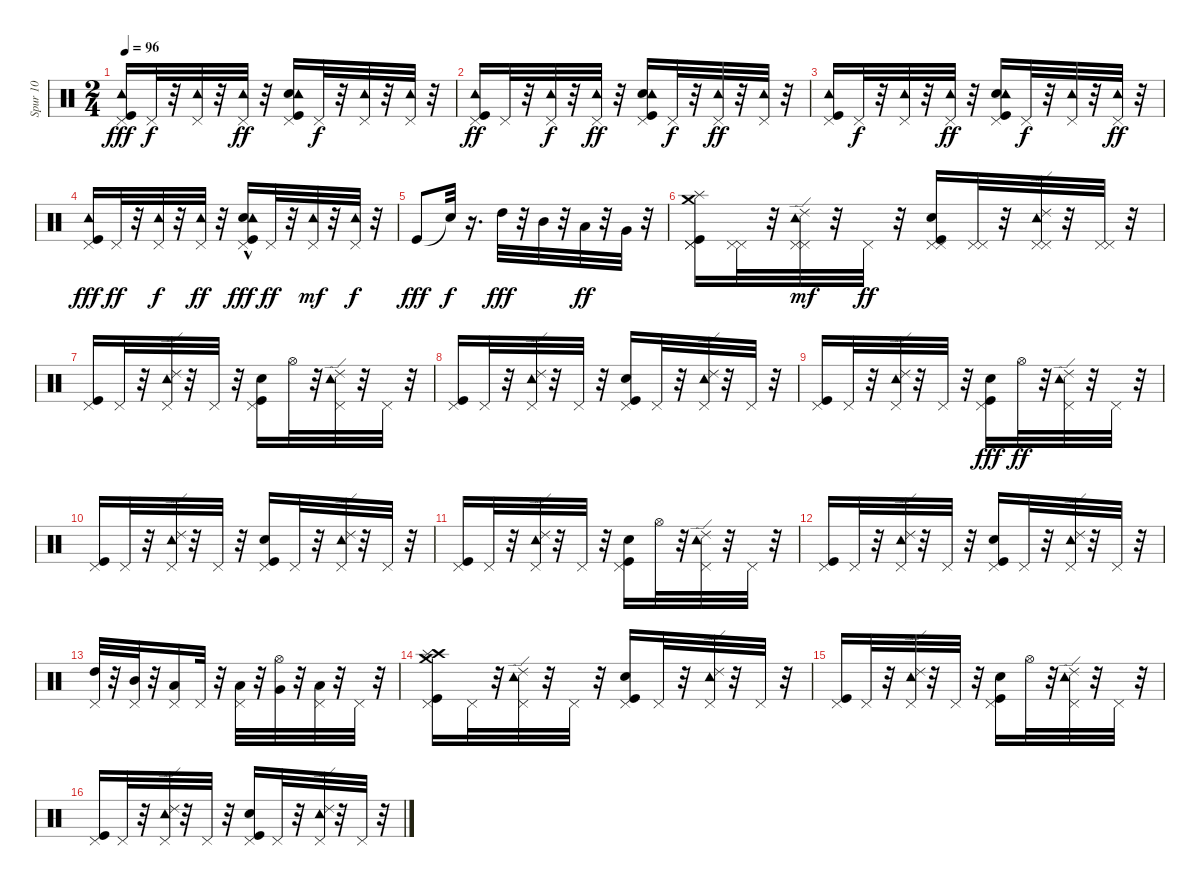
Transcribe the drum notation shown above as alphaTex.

\track ("Spur 10" "Spur 10") {instrument percussion}
\staff {score}
\articulation defaults
\ts (2 4)
\tempo 96
\clef neutral
\ks c
("Kick (hit)" "Tambourine (hit)" "Pedal Hi-Hat (hit)").16{dy fff} "Pedal Hi-Hat (hit)".32{dy f} r.32 ("Tambourine (hit)" "Pedal Hi-Hat (hit)").32 r.32 ("Tambourine (hit)" "Pedal Hi-Hat (hit)").32{dy ff} r.32 ("Kick (hit)" "Snare (hit) 2" "Tambourine (hit)" "Pedal Hi-Hat (hit)").16 "Pedal Hi-Hat (hit)".32{dy f} r.32 ("Tambourine (hit)" "Pedal Hi-Hat (hit)").32 r.32 ("Tambourine (hit)" "Pedal Hi-Hat (hit)").32 r.32 |
("Kick (hit)" "Tambourine (hit)" "Pedal Hi-Hat (hit)").16{dy ff} "Pedal Hi-Hat (hit)".32 r.32 ("Tambourine (hit)" "Pedal Hi-Hat (hit)").32{dy f} r.32 ("Tambourine (hit)" "Pedal Hi-Hat (hit)").32{dy ff} r.32 ("Kick (hit)" "Snare (hit) 2" "Tambourine (hit)" "Pedal Hi-Hat (hit)").16 "Pedal Hi-Hat (hit)".32{dy f} r.32 ("Tambourine (hit)" "Pedal Hi-Hat (hit)").32{dy ff} r.32 ("Tambourine (hit)" "Pedal Hi-Hat (hit)").32 r.32 |
("Kick (hit)" "Tambourine (hit)" "Pedal Hi-Hat (hit)").16 "Pedal Hi-Hat (hit)".32{dy f} r.32 ("Tambourine (hit)" "Pedal Hi-Hat (hit)").32 r.32 ("Tambourine (hit)" "Pedal Hi-Hat (hit)").32{dy ff} r.32 ("Kick (hit)" "Snare (hit) 2" "Tambourine (hit)" "Pedal Hi-Hat (hit)").16 "Pedal Hi-Hat (hit)".32{dy f} r.32 ("Tambourine (hit)" "Pedal Hi-Hat (hit)").32 r.32 ("Tambourine (hit)" "Pedal Hi-Hat (hit)").32{dy ff} r.32 |
("Kick (hit)" "Tambourine (hit)" "Pedal Hi-Hat (hit)").16{dy fff} "Pedal Hi-Hat (hit)".32{dy ff} r.32 ("Tambourine (hit)" "Pedal Hi-Hat (hit)").32{dy f} r.32 ("Tambourine (hit)" "Pedal Hi-Hat (hit)").32{dy ff} r.32 ("Snare (hit) 2"{hac} "Kick (hit)" "Tambourine (hit)" "Pedal Hi-Hat (hit)").16{dy fff} "Pedal Hi-Hat (hit)".32{dy ff} r.32 ("Tambourine (hit)" "Pedal Hi-Hat (hit)").32{dy mf} r.32 ("Tambourine (hit)" "Pedal Hi-Hat (hit)").32{dy f} r.32 |
"Kick (hit)".8{dy fff} "Snare (hit)"{t}.32{dy f} r.16{d} "High Tom (hit)".32{dy fff} r.32 "Mid Tom (hit)".32 r.32 "Low Tom (hit)".32{dy ff} r.32 "Very Low Tom (hit)".32 r.32 |
("Kick (hit)" "Pedal Hi-Hat (hit)" "Pedal Hi-Hat (hit)" "Splash (hit)" "Crash medium (hit)").16 ("Pedal Hi-Hat (hit)" "Pedal Hi-Hat (hit)").32 r.32 ("Tambourine (hit)" "Pedal Hi-Hat (hit)" "Pedal Hi-Hat (hit)" "Ride (edge) 2").32{dy mf} r.32 "Pedal Hi-Hat (hit)".32{dy ff} r.32 ("Snare (hit) 2" "Kick (hit)" "Pedal Hi-Hat (hit)" "Pedal Hi-Hat (hit)").16 ("Pedal Hi-Hat (hit)" "Pedal Hi-Hat (hit)").32 r.32 ("Tambourine (hit)" "Pedal Hi-Hat (hit)" "Pedal Hi-Hat (hit)" "Ride (edge) 2").32 r.32 ("Pedal Hi-Hat (hit)" "Pedal Hi-Hat (hit)").32 r.32 |
("Kick (hit)" "Pedal Hi-Hat (hit)").16 "Pedal Hi-Hat (hit)".32 r.32 ("Tambourine (hit)" "Pedal Hi-Hat (hit)" "Ride (edge) 2").32 r.32 "Pedal Hi-Hat (hit)".32 r.32 ("Snare (hit) 2" "Kick (hit)" "Pedal Hi-Hat (hit)").16 "Hi-Hat (open)".32 r.32 ("Tambourine (hit)" "Pedal Hi-Hat (hit)" "Ride (edge) 2").32 r.32 "Pedal Hi-Hat (hit)".32 r.32 |
("Kick (hit)" "Pedal Hi-Hat (hit)").16 "Pedal Hi-Hat (hit)".32 r.32 ("Tambourine (hit)" "Pedal Hi-Hat (hit)" "Ride (edge) 2").32 r.32 "Pedal Hi-Hat (hit)".32 r.32 ("Snare (hit) 2" "Kick (hit)" "Pedal Hi-Hat (hit)").16 "Pedal Hi-Hat (hit)".32 r.32 ("Tambourine (hit)" "Pedal Hi-Hat (hit)" "Ride (edge) 2").32 r.32 "Pedal Hi-Hat (hit)".32 r.32 |
("Kick (hit)" "Pedal Hi-Hat (hit)").16 "Pedal Hi-Hat (hit)".32 r.32 ("Tambourine (hit)" "Pedal Hi-Hat (hit)" "Ride (edge) 2").32 r.32 "Pedal Hi-Hat (hit)".32 r.32 ("Kick (hit)" "Snare (hit) 2" "Pedal Hi-Hat (hit)").16{dy fff} "Hi-Hat (open)".32{dy ff} r.32 ("Tambourine (hit)" "Pedal Hi-Hat (hit)" "Ride (edge) 2").32 r.32 "Pedal Hi-Hat (hit)".32 r.32 |
("Kick (hit)" "Pedal Hi-Hat (hit)").16 "Pedal Hi-Hat (hit)".32 r.32 ("Tambourine (hit)" "Pedal Hi-Hat (hit)" "Ride (edge) 2").32 r.32 "Pedal Hi-Hat (hit)".32 r.32 ("Snare (hit) 2" "Kick (hit)" "Pedal Hi-Hat (hit)").16 "Pedal Hi-Hat (hit)".32 r.32 ("Tambourine (hit)" "Pedal Hi-Hat (hit)" "Ride (edge) 2").32 r.32 "Pedal Hi-Hat (hit)".32 r.32 |
("Kick (hit)" "Pedal Hi-Hat (hit)").16 "Pedal Hi-Hat (hit)".32 r.32 ("Tambourine (hit)" "Pedal Hi-Hat (hit)" "Ride (edge) 2").32 r.32 "Pedal Hi-Hat (hit)".32 r.32 ("Snare (hit) 2" "Kick (hit)" "Pedal Hi-Hat (hit)").16 "Hi-Hat (open)".32 r.32 ("Tambourine (hit)" "Pedal Hi-Hat (hit)" "Ride (edge) 2").32 r.32 "Pedal Hi-Hat (hit)".32 r.32 |
("Kick (hit)" "Pedal Hi-Hat (hit)").16 "Pedal Hi-Hat (hit)".32 r.32 ("Tambourine (hit)" "Pedal Hi-Hat (hit)" "Ride (edge) 2").32 r.32 "Pedal Hi-Hat (hit)".32 r.32 ("Snare (hit) 2" "Kick (hit)" "Pedal Hi-Hat (hit)").16 "Pedal Hi-Hat (hit)".32 r.32 ("Tambourine (hit)" "Pedal Hi-Hat (hit)" "Ride (edge) 2").32 r.32 "Pedal Hi-Hat (hit)".32 r.32 |
("High Tom (hit)" "Pedal Hi-Hat (hit)").32 r.32 ("Mid Tom (hit)" "Pedal Hi-Hat (hit)").32 r.32 ("Low Tom (hit)" "Pedal Hi-Hat (hit)").16 "Pedal Hi-Hat (hit)".32 r.32 ("Low Tom (hit)" "Pedal Hi-Hat (hit)").32 r.32 ("Very Low Tom (hit)" "Hi-Hat (open)").32 r.32 ("Low Floor Tom (hit)" "Pedal Hi-Hat (hit)").32 r.32 "Pedal Hi-Hat (hit)".32 r.32 |
("Kick (hit)" "Pedal Hi-Hat (hit)" "Crash high (hit)" "Splash (hit)" "Crash medium (hit)").16 "Pedal Hi-Hat (hit)".32 r.32 ("Tambourine (hit)" "Pedal Hi-Hat (hit)" "Ride (edge) 2").32 r.32 "Pedal Hi-Hat (hit)".32 r.32 ("Kick (hit)" "Snare (hit) 2" "Pedal Hi-Hat (hit)").16 "Pedal Hi-Hat (hit)".32 r.32 ("Tambourine (hit)" "Pedal Hi-Hat (hit)" "Ride (edge) 2").32 r.32 "Pedal Hi-Hat (hit)".32 r.32 |
("Kick (hit)" "Pedal Hi-Hat (hit)").16 "Pedal Hi-Hat (hit)".32 r.32 ("Tambourine (hit)" "Pedal Hi-Hat (hit)" "Ride (edge) 2").32 r.32 "Pedal Hi-Hat (hit)".32 r.32 ("Kick (hit)" "Snare (hit) 2" "Pedal Hi-Hat (hit)").16 "Hi-Hat (open)".32 r.32 ("Tambourine (hit)" "Pedal Hi-Hat (hit)" "Ride (edge) 2").32 r.32 "Pedal Hi-Hat (hit)".32 r.32 |
("Kick (hit)" "Pedal Hi-Hat (hit)").16 "Pedal Hi-Hat (hit)".32 r.32 ("Tambourine (hit)" "Pedal Hi-Hat (hit)" "Ride (edge) 2").32 r.32 "Pedal Hi-Hat (hit)".32 r.32 ("Snare (hit) 2" "Kick (hit)" "Pedal Hi-Hat (hit)").16 "Pedal Hi-Hat (hit)".32 r.32 ("Tambourine (hit)" "Pedal Hi-Hat (hit)" "Ride (edge) 2").32 r.32 "Pedal Hi-Hat (hit)".32 r.32
